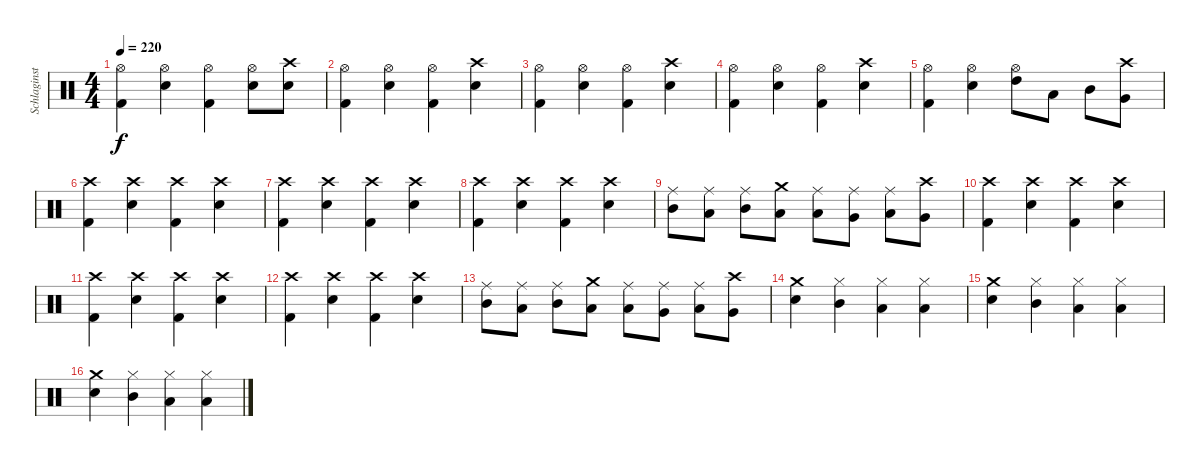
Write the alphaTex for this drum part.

\track ("Schlaginstrumente - Auswahl" "Schlaginst") {instrument percussion}
\staff {score}
\articulation defaults
\ts (4 4)
\tempo 220
\clef neutral
\ks c
("Hi-Hat (open)" "Kick (hit) 2").4{dy f} ("Hi-Hat (open)" "Snare (hit) 2").4 ("Hi-Hat (open)" "Kick (hit) 2").4 ("Hi-Hat (open)" "Snare (hit) 2").8 ("Crash high (hit)" "Snare (hit) 2").8 |
("Hi-Hat (open)" "Kick (hit) 2").4 ("Hi-Hat (open)" "Snare (hit) 2").4 ("Hi-Hat (open)" "Kick (hit) 2").4 ("Crash high (hit)" "Snare (hit) 2").4 |
("Hi-Hat (open)" "Kick (hit) 2").4 ("Hi-Hat (open)" "Snare (hit) 2").4 ("Hi-Hat (open)" "Kick (hit) 2").4 ("Crash high (hit)" "Snare (hit) 2").4 |
("Hi-Hat (open)" "Kick (hit) 2").4 ("Hi-Hat (open)" "Snare (hit) 2").4 ("Hi-Hat (open)" "Kick (hit) 2").4 ("Crash high (hit)" "Snare (hit) 2").4 |
("Hi-Hat (open)" "Kick (hit) 2").4 ("Hi-Hat (open)" "Snare (hit) 2").4 ("Hi-Hat (open)" "High Tom (hit)").8 "Low Tom (hit)".8 "Mid Tom (hit)".8 ("Crash high (hit)" "Very Low Tom (hit)").8 |
("Crash high (hit)" "Kick (hit) 2").4 ("Crash high (hit)" "Snare (hit) 2").4 ("Crash high (hit)" "Kick (hit) 2").4 ("Crash high (hit)" "Snare (hit) 2").4 |
("Crash high (hit)" "Kick (hit) 2").4 ("Crash high (hit)" "Snare (hit) 2").4 ("Crash high (hit)" "Kick (hit) 2").4 ("Crash high (hit)" "Snare (hit) 2").4 |
("Crash high (hit)" "Kick (hit) 2").4 ("Crash high (hit)" "Snare (hit) 2").4 ("Crash high (hit)" "Kick (hit) 2").4 ("Crash high (hit)" "Snare (hit) 2").4 |
("Ride (middle)" "Mid Tom (hit)").8 ("Ride (middle)" "Low Tom (hit)").8 ("Ride (middle)" "Mid Tom (hit)").8 ("Crash medium (hit)" "Low Tom (hit)").8 ("Ride (middle)" "Low Tom (hit)").8 ("Ride (middle)" "Very Low Tom (hit)").8 ("Ride (middle)" "Low Tom (hit)").8 ("Crash high (hit)" "Very Low Tom (hit)").8 |
("Crash high (hit)" "Kick (hit) 2").4 ("Crash high (hit)" "Snare (hit) 2").4 ("Crash high (hit)" "Kick (hit) 2").4 ("Crash high (hit)" "Snare (hit) 2").4 |
("Crash high (hit)" "Kick (hit) 2").4 ("Crash high (hit)" "Snare (hit) 2").4 ("Crash high (hit)" "Kick (hit) 2").4 ("Crash high (hit)" "Snare (hit) 2").4 |
("Crash high (hit)" "Kick (hit) 2").4 ("Crash high (hit)" "Snare (hit) 2").4 ("Crash high (hit)" "Kick (hit) 2").4 ("Crash high (hit)" "Snare (hit) 2").4 |
("Ride (middle)" "Mid Tom (hit)").8 ("Ride (middle)" "Low Tom (hit)").8 ("Ride (middle)" "Mid Tom (hit)").8 ("Crash medium (hit)" "Low Tom (hit)").8 ("Ride (middle)" "Low Tom (hit)").8 ("Ride (middle)" "Very Low Tom (hit)").8 ("Ride (middle)" "Low Tom (hit)").8 ("Crash high (hit)" "Very Low Tom (hit)").8 |
("Crash medium (hit)" "Snare (hit) 2").4 ("Hi-Hat (closed)" "Mid Tom (hit)").4 ("Hi-Hat (closed)" "Low Tom (hit)").4 ("Hi-Hat (closed)" "Low Floor Tom (hit)").4 |
("Crash medium (hit)" "Snare (hit) 2").4 ("Hi-Hat (closed)" "Mid Tom (hit)").4 ("Hi-Hat (closed)" "Low Tom (hit)").4 ("Hi-Hat (closed)" "Low Floor Tom (hit)").4 |
("Crash medium (hit)" "Snare (hit) 2").4 ("Hi-Hat (closed)" "Mid Tom (hit)").4 ("Hi-Hat (closed)" "Low Tom (hit)").4 ("Hi-Hat (closed)" "Low Floor Tom (hit)").4
